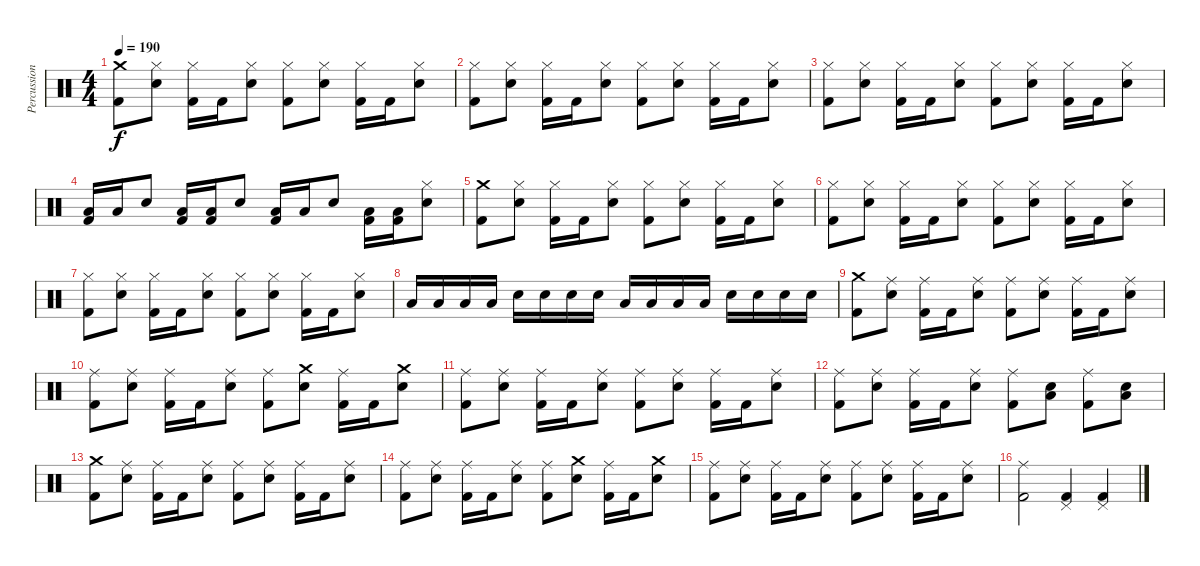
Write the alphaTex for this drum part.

\track ("Percussion" "Percussion") {instrument percussion}
\staff {score}
\articulation defaults
\ts (4 4)
\tempo 190
\clef neutral
\ks c
("Crash medium (hit)" "Kick (hit) 2").8{dy f} ("Hi-Hat (closed)" "Electric Snare (hit)").8 ("Hi-Hat (closed)" "Kick (hit) 2").16 "Kick (hit) 2".16 ("Hi-Hat (closed)" "Electric Snare (hit)").8 ("Hi-Hat (closed)" "Kick (hit) 2").8 ("Hi-Hat (closed)" "Electric Snare (hit)").8 ("Hi-Hat (closed)" "Kick (hit) 2").16 "Kick (hit) 2".16 ("Hi-Hat (closed)" "Electric Snare (hit)").8 |
("Hi-Hat (closed)" "Kick (hit) 2").8 ("Hi-Hat (closed)" "Electric Snare (hit)").8 ("Hi-Hat (closed)" "Kick (hit) 2").16 "Kick (hit) 2".16 ("Hi-Hat (closed)" "Electric Snare (hit)").8 ("Hi-Hat (closed)" "Kick (hit) 2").8 ("Hi-Hat (closed)" "Electric Snare (hit)").8 ("Hi-Hat (closed)" "Kick (hit) 2").16 "Kick (hit) 2".16 ("Hi-Hat (closed)" "Electric Snare (hit)").8 |
("Hi-Hat (closed)" "Kick (hit) 2").8 ("Hi-Hat (closed)" "Electric Snare (hit)").8 ("Hi-Hat (closed)" "Kick (hit) 2").16 "Kick (hit) 2".16 ("Hi-Hat (closed)" "Electric Snare (hit)").8 ("Hi-Hat (closed)" "Kick (hit) 2").8 ("Hi-Hat (closed)" "Electric Snare (hit)").8 ("Hi-Hat (closed)" "Kick (hit) 2").16 "Kick (hit) 2".16 ("Hi-Hat (closed)" "Electric Snare (hit)").8 |
("Low Floor Tom (hit)" "Kick (hit) 2").16 "Low Floor Tom (hit)".16 "Electric Snare (hit)".8 ("Low Floor Tom (hit)" "Kick (hit) 2").16 ("Low Floor Tom (hit)" "Kick (hit) 2").16 "Electric Snare (hit)".8 ("Low Floor Tom (hit)" "Kick (hit) 2").16 "Low Floor Tom (hit)".16 "Electric Snare (hit)".8 ("Low Floor Tom (hit)" "Kick (hit) 2").16 ("Low Floor Tom (hit)" "Kick (hit) 2").16 ("Hi-Hat (closed)" "Electric Snare (hit)").8 |
("Crash medium (hit)" "Kick (hit) 2").8 ("Hi-Hat (closed)" "Electric Snare (hit)").8 ("Hi-Hat (closed)" "Kick (hit) 2").16 "Kick (hit) 2".16 ("Hi-Hat (closed)" "Electric Snare (hit)").8 ("Hi-Hat (closed)" "Kick (hit) 2").8 ("Hi-Hat (closed)" "Electric Snare (hit)").8 ("Hi-Hat (closed)" "Kick (hit) 2").16 "Kick (hit) 2".16 ("Hi-Hat (closed)" "Electric Snare (hit)").8 |
("Hi-Hat (closed)" "Kick (hit) 2").8 ("Hi-Hat (closed)" "Electric Snare (hit)").8 ("Hi-Hat (closed)" "Kick (hit) 2").16 "Kick (hit) 2".16 ("Hi-Hat (closed)" "Electric Snare (hit)").8 ("Hi-Hat (closed)" "Kick (hit) 2").8 ("Hi-Hat (closed)" "Electric Snare (hit)").8 ("Hi-Hat (closed)" "Kick (hit) 2").16 "Kick (hit) 2".16 ("Hi-Hat (closed)" "Electric Snare (hit)").8 |
("Hi-Hat (closed)" "Kick (hit) 2").8 ("Hi-Hat (closed)" "Electric Snare (hit)").8 ("Hi-Hat (closed)" "Kick (hit) 2").16 "Kick (hit) 2".16 ("Hi-Hat (closed)" "Electric Snare (hit)").8 ("Hi-Hat (closed)" "Kick (hit) 2").8 ("Hi-Hat (closed)" "Electric Snare (hit)").8 ("Hi-Hat (closed)" "Kick (hit) 2").16 "Kick (hit) 2".16 ("Hi-Hat (closed)" "Electric Snare (hit)").8 |
"Low Tom (hit)".16 "Low Tom (hit)".16 "Low Tom (hit)".16 "Low Tom (hit)".16 "Electric Snare (hit)".16 "Electric Snare (hit)".16 "Electric Snare (hit)".16 "Electric Snare (hit)".16 "Low Tom (hit)".16 "Low Tom (hit)".16 "Low Tom (hit)".16 "Low Tom (hit)".16 "Electric Snare (hit)".16 "Electric Snare (hit)".16 "Electric Snare (hit)".16 "Electric Snare (hit)".16 |
("Crash medium (hit)" "Kick (hit) 2").8 ("Ride (middle)" "Electric Snare (hit)").8 ("Ride (middle)" "Kick (hit) 2").16 "Kick (hit) 2".16 ("Ride (middle)" "Electric Snare (hit)").8 ("Ride (middle)" "Kick (hit) 2").8 ("Ride (middle)" "Electric Snare (hit)").8 ("Ride (middle)" "Kick (hit) 2").16 "Kick (hit) 2".16 ("Ride (middle)" "Electric Snare (hit)").8 |
("Ride (middle)" "Kick (hit) 2").8 ("Ride (middle)" "Electric Snare (hit)").8 ("Ride (middle)" "Kick (hit) 2").16 "Kick (hit) 2".16 ("Ride (middle)" "Electric Snare (hit)").8 ("Ride (middle)" "Kick (hit) 2").8 ("Crash medium (hit)" "Electric Snare (hit)").8 ("Ride (middle)" "Kick (hit) 2").16 "Kick (hit) 2".16 ("Crash medium (hit)" "Electric Snare (hit)").8 |
("Ride (middle)" "Kick (hit) 2").8 ("Ride (middle)" "Electric Snare (hit)").8 ("Ride (middle)" "Kick (hit) 2").16 "Kick (hit) 2".16 ("Ride (middle)" "Electric Snare (hit)").8 ("Ride (middle)" "Kick (hit) 2").8 ("Ride (middle)" "Electric Snare (hit)").8 ("Ride (middle)" "Kick (hit) 2").16 "Kick (hit) 2".16 ("Ride (middle)" "Electric Snare (hit)").8 |
("Ride (middle)" "Kick (hit) 2").8 ("Ride (middle)" "Electric Snare (hit)").8 ("Ride (middle)" "Kick (hit) 2").16 "Kick (hit) 2".16 ("Ride (middle)" "Electric Snare (hit)").8 ("Ride (middle)" "Kick (hit) 2").8 ("Low Floor Tom (hit)" "Electric Snare (hit)").8 ("Ride (middle)" "Kick (hit) 2").8 ("Low Floor Tom (hit)" "Electric Snare (hit)").8 |
("Crash medium (hit)" "Kick (hit) 2").8 ("Ride (middle)" "Electric Snare (hit)").8 ("Ride (middle)" "Kick (hit) 2").16 "Kick (hit) 2".16 ("Ride (middle)" "Electric Snare (hit)").8 ("Ride (middle)" "Kick (hit) 2").8 ("Ride (middle)" "Electric Snare (hit)").8 ("Ride (middle)" "Kick (hit) 2").16 "Kick (hit) 2".16 ("Ride (middle)" "Electric Snare (hit)").8 |
("Ride (middle)" "Kick (hit) 2").8 ("Ride (middle)" "Electric Snare (hit)").8 ("Ride (middle)" "Kick (hit) 2").16 "Kick (hit) 2".16 ("Ride (middle)" "Electric Snare (hit)").8 ("Ride (middle)" "Kick (hit) 2").8 ("Crash medium (hit)" "Electric Snare (hit)").8 ("Ride (middle)" "Kick (hit) 2").16 "Kick (hit) 2".16 ("Crash medium (hit)" "Electric Snare (hit)").8 |
("Ride (middle)" "Kick (hit) 2").8 ("Ride (middle)" "Electric Snare (hit)").8 ("Ride (middle)" "Kick (hit) 2").16 "Kick (hit) 2".16 ("Ride (middle)" "Electric Snare (hit)").8 ("Ride (middle)" "Kick (hit) 2").8 ("Ride (middle)" "Electric Snare (hit)").8 ("Ride (middle)" "Kick (hit) 2").16 "Kick (hit) 2".16 ("Ride (middle)" "Electric Snare (hit)").8 |
("Ride (middle)" "Kick (hit) 2").2 ("Pedal Hi-Hat (hit)" "Kick (hit) 2").4 ("Pedal Hi-Hat (hit)" "Kick (hit) 2").4
